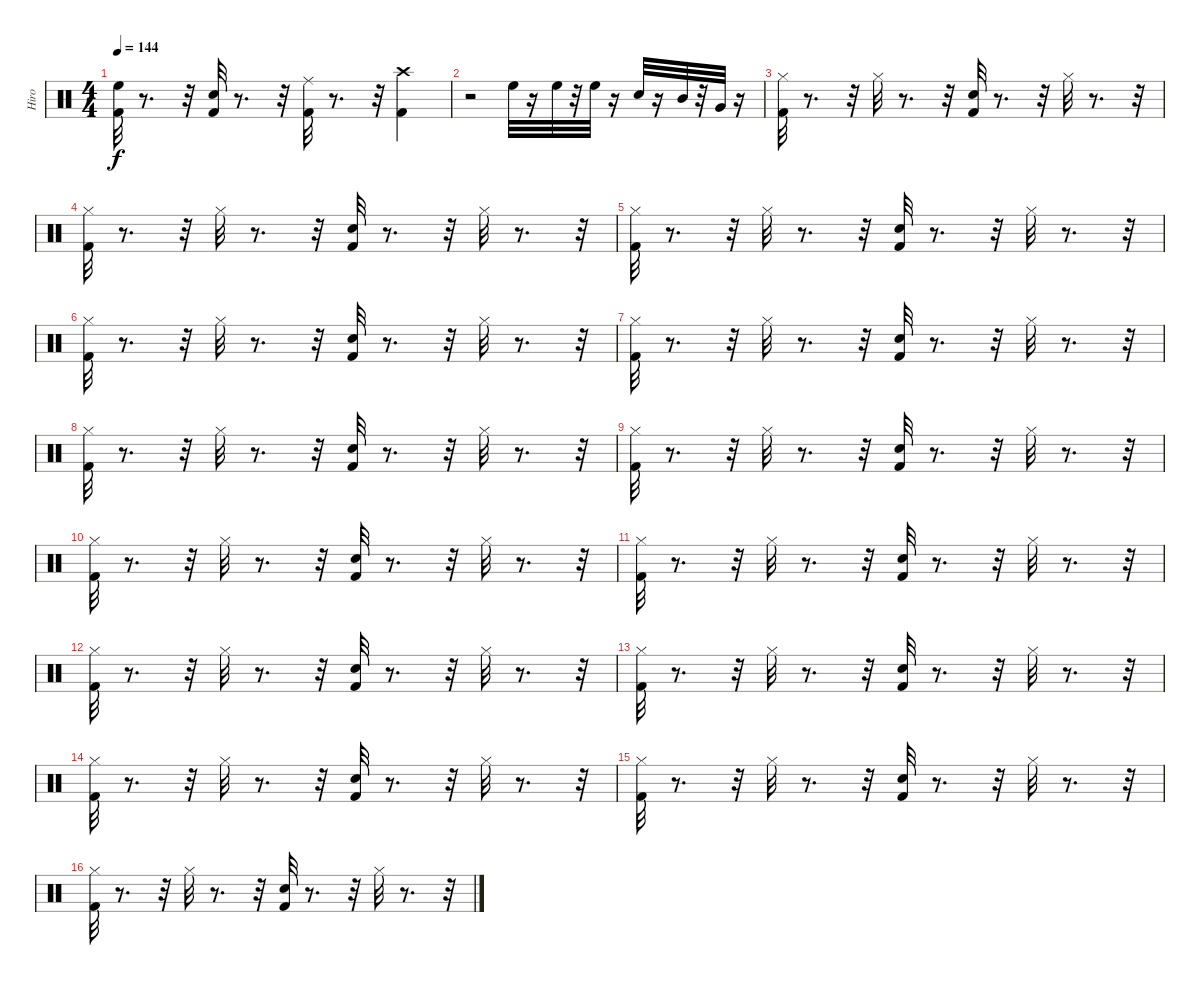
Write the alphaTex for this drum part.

\track ("Hiro" "Hiro") {instrument percussion}
\staff {score}
\articulation defaults
\ts (4 4)
\tempo 144
\clef neutral
\ks c
("High Floor Tom (hit)" "Kick (hit) 2").32{dy f} r.8{d} r.32 ("Snare (hit) 2" "Kick (hit) 2").32 r.8{d} r.32 ("Kick (hit) 2" "Ride (middle)").32 r.8{d} r.32 ("Crash high (hit)" "Kick (hit) 2").4 |
r.2 "High Floor Tom (hit)".32 r.16 "High Floor Tom (hit)".32 r.32 "High Floor Tom (hit)".32 r.16 "Snare (hit) 2".32 r.16 "Mid Tom (hit)".32 r.32 "Very Low Tom (hit)".32 r.16 |
("Hi-Hat (closed)" "Kick (hit) 2").32 r.8{d} r.32 "Hi-Hat (closed)".32 r.8{d} r.32 ("Kick (hit) 2" "Snare (hit) 2").32 r.8{d} r.32 "Hi-Hat (closed)".32 r.8{d} r.32 |
("Hi-Hat (closed)" "Kick (hit) 2").32 r.8{d} r.32 "Hi-Hat (closed)".32 r.8{d} r.32 ("Kick (hit) 2" "Snare (hit) 2").32 r.8{d} r.32 "Hi-Hat (closed)".32 r.8{d} r.32 |
("Hi-Hat (closed)" "Kick (hit) 2").32 r.8{d} r.32 "Hi-Hat (closed)".32 r.8{d} r.32 ("Kick (hit) 2" "Snare (hit) 2").32 r.8{d} r.32 "Hi-Hat (closed)".32 r.8{d} r.32 |
("Hi-Hat (closed)" "Kick (hit) 2").32 r.8{d} r.32 "Hi-Hat (closed)".32 r.8{d} r.32 ("Kick (hit) 2" "Snare (hit) 2").32 r.8{d} r.32 "Hi-Hat (closed)".32 r.8{d} r.32 |
("Hi-Hat (closed)" "Kick (hit) 2").32 r.8{d} r.32 "Hi-Hat (closed)".32 r.8{d} r.32 ("Kick (hit) 2" "Snare (hit) 2").32 r.8{d} r.32 "Hi-Hat (closed)".32 r.8{d} r.32 |
("Hi-Hat (closed)" "Kick (hit) 2").32 r.8{d} r.32 "Hi-Hat (closed)".32 r.8{d} r.32 ("Kick (hit) 2" "Snare (hit) 2").32 r.8{d} r.32 "Hi-Hat (closed)".32 r.8{d} r.32 |
("Hi-Hat (closed)" "Kick (hit) 2").32 r.8{d} r.32 "Hi-Hat (closed)".32 r.8{d} r.32 ("Kick (hit) 2" "Snare (hit) 2").32 r.8{d} r.32 "Hi-Hat (closed)".32 r.8{d} r.32 |
("Hi-Hat (closed)" "Kick (hit) 2").32 r.8{d} r.32 "Hi-Hat (closed)".32 r.8{d} r.32 ("Kick (hit) 2" "Snare (hit) 2").32 r.8{d} r.32 "Hi-Hat (closed)".32 r.8{d} r.32 |
("Hi-Hat (closed)" "Kick (hit) 2").32 r.8{d} r.32 "Hi-Hat (closed)".32 r.8{d} r.32 ("Kick (hit) 2" "Snare (hit) 2").32 r.8{d} r.32 "Hi-Hat (closed)".32 r.8{d} r.32 |
("Hi-Hat (closed)" "Kick (hit) 2").32 r.8{d} r.32 "Hi-Hat (closed)".32 r.8{d} r.32 ("Kick (hit) 2" "Snare (hit) 2").32 r.8{d} r.32 "Hi-Hat (closed)".32 r.8{d} r.32 |
("Hi-Hat (closed)" "Kick (hit) 2").32 r.8{d} r.32 "Hi-Hat (closed)".32 r.8{d} r.32 ("Kick (hit) 2" "Snare (hit) 2").32 r.8{d} r.32 "Hi-Hat (closed)".32 r.8{d} r.32 |
("Hi-Hat (closed)" "Kick (hit) 2").32 r.8{d} r.32 "Hi-Hat (closed)".32 r.8{d} r.32 ("Kick (hit) 2" "Snare (hit) 2").32 r.8{d} r.32 "Hi-Hat (closed)".32 r.8{d} r.32 |
("Hi-Hat (closed)" "Kick (hit) 2").32 r.8{d} r.32 "Hi-Hat (closed)".32 r.8{d} r.32 ("Kick (hit) 2" "Snare (hit) 2").32 r.8{d} r.32 "Hi-Hat (closed)".32 r.8{d} r.32 |
("Hi-Hat (closed)" "Kick (hit) 2").32 r.8{d} r.32 "Hi-Hat (closed)".32 r.8{d} r.32 ("Kick (hit) 2" "Snare (hit) 2").32 r.8{d} r.32 "Hi-Hat (closed)".32 r.8{d} r.32
